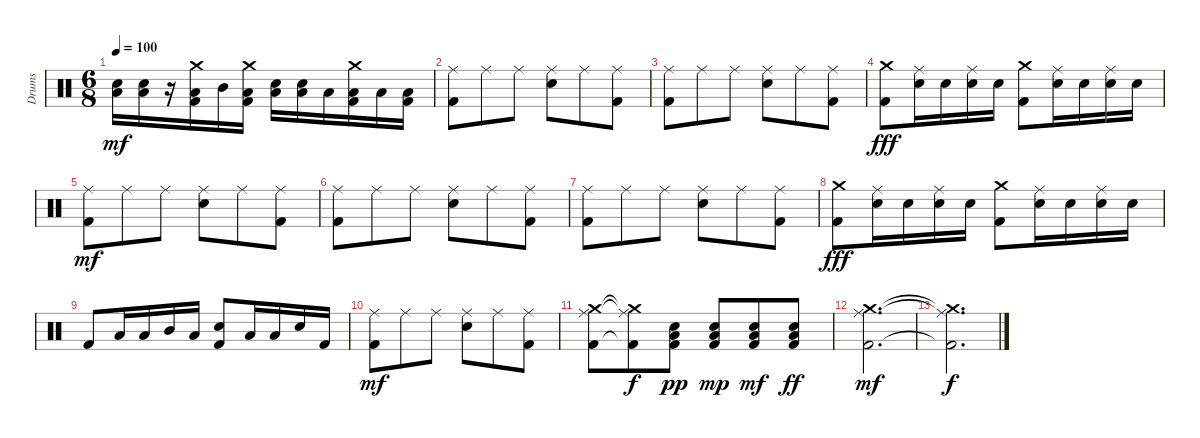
\track ("Drums" "Drums") {instrument percussion}
\staff {score}
\articulation defaults
\ts (6 8)
\tempo 100
\clef neutral
\ks c
("Low Floor Tom (hit)" "Electric Snare (hit)").16{dy mf} ("Low Floor Tom (hit)" "Electric Snare (hit)").16 r.16 ("Crash medium (hit)" "Low Floor Tom (hit)" "Kick (hit) 2").16 "Mid Tom (hit)".16 ("Crash medium (hit)" "Low Tom (hit)" "Kick (hit) 2").16 ("Low Floor Tom (hit)" "Electric Snare (hit)").16 ("Low Tom (hit)" "Electric Snare (hit)").16 "Low Floor Tom (hit)".16 ("Crash medium (hit)" "Low Tom (hit)" "Kick (hit) 2").16 "Low Floor Tom (hit)".16 ("Low Floor Tom (hit)" "Kick (hit) 2").16 |
("Ride (middle)" "Kick (hit) 2").8 "Ride (middle)".8 "Ride (middle)".8 ("Ride (middle)" "Electric Snare (hit)").8 "Ride (middle)".8 ("Ride (middle)" "Kick (hit) 2").8 |
("Ride (middle)" "Kick (hit) 2").8 "Ride (middle)".8 "Ride (middle)".8 ("Ride (middle)" "Electric Snare (hit)").8 "Ride (middle)".8 ("Ride (middle)" "Kick (hit) 2").8 |
("Crash medium (hit)" "Kick (hit) 2").8{dy fff} ("Ride (middle)" "Electric Snare (hit)").16 "Electric Snare (hit)".16 ("Ride (middle)" "Electric Snare (hit)").16 "Electric Snare (hit)".16 ("Crash medium (hit)" "Kick (hit) 2").8 ("Ride (middle)" "Electric Snare (hit)").16 "Electric Snare (hit)".16 ("Ride (middle)" "Electric Snare (hit)").16 "Electric Snare (hit)".16 |
("Ride (middle)" "Kick (hit) 2").8{dy mf} "Ride (middle)".8 "Ride (middle)".8 ("Ride (middle)" "Electric Snare (hit)").8 "Ride (middle)".8 ("Ride (middle)" "Kick (hit) 2").8 |
("Ride (middle)" "Kick (hit) 2").8 "Ride (middle)".8 "Ride (middle)".8 ("Ride (middle)" "Electric Snare (hit)").8 "Ride (middle)".8 ("Ride (middle)" "Kick (hit) 2").8 |
("Ride (middle)" "Kick (hit) 2").8 "Ride (middle)".8 "Ride (middle)".8 ("Ride (middle)" "Electric Snare (hit)").8 "Ride (middle)".8 ("Ride (middle)" "Kick (hit) 2").8 |
("Crash medium (hit)" "Kick (hit) 2").8{dy fff} ("Ride (middle)" "Electric Snare (hit)").16 "Electric Snare (hit)".16 ("Ride (middle)" "Electric Snare (hit)").16 "Electric Snare (hit)".16 ("Crash medium (hit)" "Kick (hit) 2").8 ("Ride (middle)" "Electric Snare (hit)").16 "Electric Snare (hit)".16 ("Ride (middle)" "Electric Snare (hit)").16 "Electric Snare (hit)".16 |
"Kick (hit) 2".8 "Low Floor Tom (hit)".16 "Low Tom (hit)".16 "Mid Tom (hit)".16 "Low Tom (hit)".16 ("Electric Snare (hit)" "Kick (hit) 2").8 "Low Floor Tom (hit)".16 "Low Tom (hit)".16 "Electric Snare (hit)".16 "Kick (hit) 2".16 |
("Ride (middle)" "Kick (hit) 2").8{dy mf} "Ride (middle)".8 "Ride (middle)".8 ("Ride (middle)" "Electric Snare (hit)").8 "Ride (middle)".8 ("Ride (middle)" "Kick (hit) 2").8 |
("Crash medium (hit)" "Ride (middle)" "Kick (hit) 2").8 ("Crash medium (hit)"{t} "Ride (middle)"{t} "Kick (hit) 2"{t}).8{dy f} ("Electric Snare (hit)" "Low Floor Tom (hit)" "Kick (hit) 2").8{dy pp} ("Electric Snare (hit)" "Low Floor Tom (hit)" "Kick (hit) 2").8{dy mp} ("Electric Snare (hit)" "Low Floor Tom (hit)" "Kick (hit) 2").8{dy mf} ("Electric Snare (hit)" "Low Floor Tom (hit)" "Kick (hit) 2").8{dy ff} |
("Ride (middle)" "Crash medium (hit)" "Kick (hit) 2").2{d dy mf} |
("Ride (middle)"{t} "Crash medium (hit)"{t} "Kick (hit) 2"{t}).2{d dy f}
